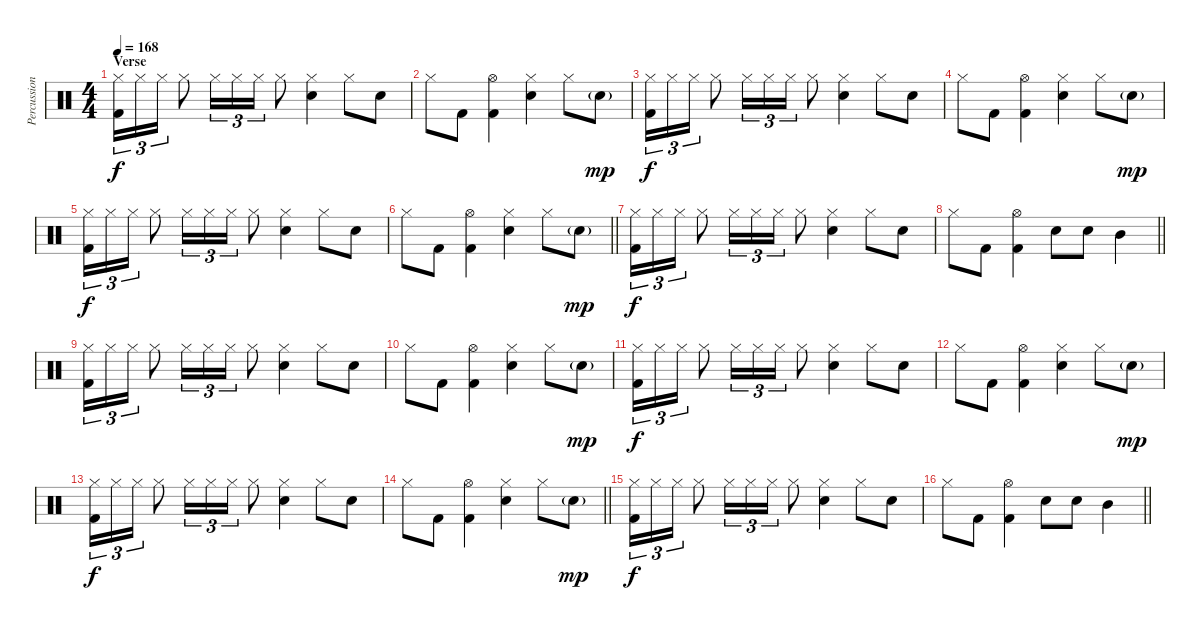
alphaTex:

\track ("Percussion" "Percussion") {instrument percussion}
\staff {score}
\articulation defaults
\ts (4 4)
\section ("" "Verse")
\tempo 168
\clef neutral
\ks c
("Hi-Hat (closed)" "Kick (hit) 2").16{tu (3 2) dy f} "Hi-Hat (closed)".16{tu (3 2)} "Hi-Hat (closed)".16{tu (3 2)} "Hi-Hat (closed)".8 "Hi-Hat (closed)".16{tu (3 2)} "Hi-Hat (closed)".16{tu (3 2)} "Hi-Hat (closed)".16{tu (3 2)} "Hi-Hat (closed)".8 ("Hi-Hat (closed)" "Electric Snare (hit)").4 "Hi-Hat (closed)".8 "Electric Snare (hit)".8 |
"Hi-Hat (closed)".8 "Kick (hit) 2".8 ("Hi-Hat (open)" "Kick (hit) 2").4 ("Hi-Hat (closed)" "Electric Snare (hit)").4 "Hi-Hat (closed)".8 "Electric Snare (hit)"{g}.8{dy mp} |
("Hi-Hat (closed)" "Kick (hit) 2").16{tu (3 2) dy f} "Hi-Hat (closed)".16{tu (3 2)} "Hi-Hat (closed)".16{tu (3 2)} "Hi-Hat (closed)".8 "Hi-Hat (closed)".16{tu (3 2)} "Hi-Hat (closed)".16{tu (3 2)} "Hi-Hat (closed)".16{tu (3 2)} "Hi-Hat (closed)".8 ("Hi-Hat (closed)" "Electric Snare (hit)").4 "Hi-Hat (closed)".8 "Electric Snare (hit)".8 |
"Hi-Hat (closed)".8 "Kick (hit) 2".8 ("Hi-Hat (open)" "Kick (hit) 2").4 ("Hi-Hat (closed)" "Electric Snare (hit)").4 "Hi-Hat (closed)".8 "Electric Snare (hit)"{g}.8{dy mp} |
("Hi-Hat (closed)" "Kick (hit) 2").16{tu (3 2) dy f} "Hi-Hat (closed)".16{tu (3 2)} "Hi-Hat (closed)".16{tu (3 2)} "Hi-Hat (closed)".8 "Hi-Hat (closed)".16{tu (3 2)} "Hi-Hat (closed)".16{tu (3 2)} "Hi-Hat (closed)".16{tu (3 2)} "Hi-Hat (closed)".8 ("Hi-Hat (closed)" "Electric Snare (hit)").4 "Hi-Hat (closed)".8 "Electric Snare (hit)".8 |
\barLineRight lightlight "Hi-Hat (closed)".8 "Kick (hit) 2".8
("Hi-Hat (open)" "Kick (hit) 2").4 ("Hi-Hat (closed)" "Electric Snare (hit)").4 "Hi-Hat (closed)".8 "Electric Snare (hit)"{g}.8{dy mp} |
("Hi-Hat (closed)" "Kick (hit) 2").16{tu (3 2) dy f} "Hi-Hat (closed)".16{tu (3 2)} "Hi-Hat (closed)".16{tu (3 2)} "Hi-Hat (closed)".8 "Hi-Hat (closed)".16{tu (3 2)} "Hi-Hat (closed)".16{tu (3 2)} "Hi-Hat (closed)".16{tu (3 2)} "Hi-Hat (closed)".8 ("Hi-Hat (closed)" "Electric Snare (hit)").4 "Hi-Hat (closed)".8 "Electric Snare (hit)".8 |
\barLineRight lightlight "Hi-Hat (closed)".8 "Kick (hit) 2".8
("Hi-Hat (open)" "Kick (hit) 2").4 "Electric Snare (hit)".8 "Electric Snare (hit)".8 "Mid Tom (hit)".4 |
("Hi-Hat (closed)" "Kick (hit) 2").16{tu (3 2)} "Hi-Hat (closed)".16{tu (3 2)} "Hi-Hat (closed)".16{tu (3 2)} "Hi-Hat (closed)".8 "Hi-Hat (closed)".16{tu (3 2)} "Hi-Hat (closed)".16{tu (3 2)} "Hi-Hat (closed)".16{tu (3 2)} "Hi-Hat (closed)".8 ("Hi-Hat (closed)" "Electric Snare (hit)").4 "Hi-Hat (closed)".8 "Electric Snare (hit)".8 |
"Hi-Hat (closed)".8 "Kick (hit) 2".8 ("Hi-Hat (open)" "Kick (hit) 2").4 ("Hi-Hat (closed)" "Electric Snare (hit)").4 "Hi-Hat (closed)".8 "Electric Snare (hit)"{g}.8{dy mp} |
("Hi-Hat (closed)" "Kick (hit) 2").16{tu (3 2) dy f} "Hi-Hat (closed)".16{tu (3 2)} "Hi-Hat (closed)".16{tu (3 2)} "Hi-Hat (closed)".8 "Hi-Hat (closed)".16{tu (3 2)} "Hi-Hat (closed)".16{tu (3 2)} "Hi-Hat (closed)".16{tu (3 2)} "Hi-Hat (closed)".8 ("Hi-Hat (closed)" "Electric Snare (hit)").4 "Hi-Hat (closed)".8 "Electric Snare (hit)".8 |
"Hi-Hat (closed)".8 "Kick (hit) 2".8 ("Hi-Hat (open)" "Kick (hit) 2").4 ("Hi-Hat (closed)" "Electric Snare (hit)").4 "Hi-Hat (closed)".8 "Electric Snare (hit)"{g}.8{dy mp} |
("Hi-Hat (closed)" "Kick (hit) 2").16{tu (3 2) dy f} "Hi-Hat (closed)".16{tu (3 2)} "Hi-Hat (closed)".16{tu (3 2)} "Hi-Hat (closed)".8 "Hi-Hat (closed)".16{tu (3 2)} "Hi-Hat (closed)".16{tu (3 2)} "Hi-Hat (closed)".16{tu (3 2)} "Hi-Hat (closed)".8 ("Hi-Hat (closed)" "Electric Snare (hit)").4 "Hi-Hat (closed)".8 "Electric Snare (hit)".8 |
\barLineRight lightlight "Hi-Hat (closed)".8 "Kick (hit) 2".8
("Hi-Hat (open)" "Kick (hit) 2").4 ("Hi-Hat (closed)" "Electric Snare (hit)").4 "Hi-Hat (closed)".8 "Electric Snare (hit)"{g}.8{dy mp} |
("Hi-Hat (closed)" "Kick (hit) 2").16{tu (3 2) dy f} "Hi-Hat (closed)".16{tu (3 2)} "Hi-Hat (closed)".16{tu (3 2)} "Hi-Hat (closed)".8 "Hi-Hat (closed)".16{tu (3 2)} "Hi-Hat (closed)".16{tu (3 2)} "Hi-Hat (closed)".16{tu (3 2)} "Hi-Hat (closed)".8 ("Hi-Hat (closed)" "Electric Snare (hit)").4 "Hi-Hat (closed)".8 "Electric Snare (hit)".8 |
\barLineRight lightlight "Hi-Hat (closed)".8 "Kick (hit) 2".8
("Hi-Hat (open)" "Kick (hit) 2").4 "Electric Snare (hit)".8 "Electric Snare (hit)".8 "Mid Tom (hit)".4
